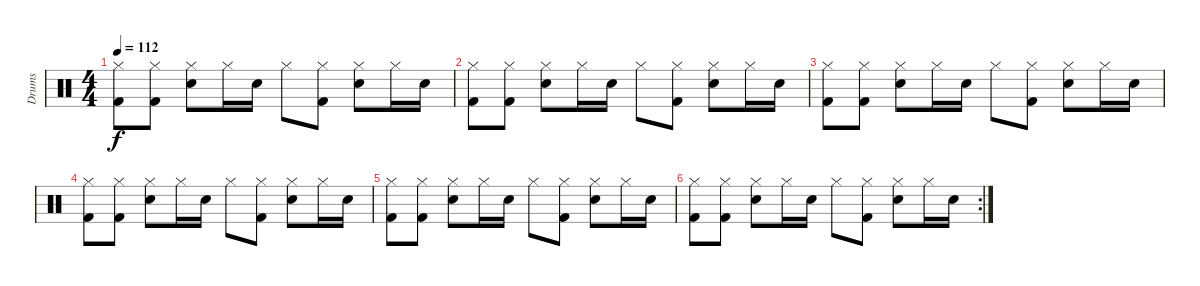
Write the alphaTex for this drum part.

\track ("Drums" "Drums") {instrument percussion}
\staff {score}
\articulation defaults
\ts (4 4)
\tempo 112
\clef neutral
\ks c
("Hi-Hat (closed)" "Kick (hit) 2").8{dy f} ("Hi-Hat (closed)" "Kick (hit) 2").8 ("Hi-Hat (closed)" "Electric Snare (hit)").8 "Hi-Hat (closed)".16 "Electric Snare (hit)".16 "Hi-Hat (closed)".8 ("Hi-Hat (closed)" "Kick (hit) 2").8 ("Hi-Hat (closed)" "Electric Snare (hit)").8 "Hi-Hat (closed)".16 "Electric Snare (hit)".16 |
("Hi-Hat (closed)" "Kick (hit) 2").8 ("Hi-Hat (closed)" "Kick (hit) 2").8 ("Hi-Hat (closed)" "Electric Snare (hit)").8 "Hi-Hat (closed)".16 "Electric Snare (hit)".16 "Hi-Hat (closed)".8 ("Hi-Hat (closed)" "Kick (hit) 2").8 ("Hi-Hat (closed)" "Electric Snare (hit)").8 "Hi-Hat (closed)".16 "Electric Snare (hit)".16 |
("Hi-Hat (closed)" "Kick (hit) 2").8 ("Hi-Hat (closed)" "Kick (hit) 2").8 ("Hi-Hat (closed)" "Electric Snare (hit)").8 "Hi-Hat (closed)".16 "Electric Snare (hit)".16 "Hi-Hat (closed)".8 ("Hi-Hat (closed)" "Kick (hit) 2").8 ("Hi-Hat (closed)" "Electric Snare (hit)").8 "Hi-Hat (closed)".16 "Electric Snare (hit)".16 |
("Hi-Hat (closed)" "Kick (hit) 2").8 ("Hi-Hat (closed)" "Kick (hit) 2").8 ("Hi-Hat (closed)" "Electric Snare (hit)").8 "Hi-Hat (closed)".16 "Electric Snare (hit)".16 "Hi-Hat (closed)".8 ("Hi-Hat (closed)" "Kick (hit) 2").8 ("Hi-Hat (closed)" "Electric Snare (hit)").8 "Hi-Hat (closed)".16 "Electric Snare (hit)".16 |
("Hi-Hat (closed)" "Kick (hit) 2").8 ("Hi-Hat (closed)" "Kick (hit) 2").8 ("Hi-Hat (closed)" "Electric Snare (hit)").8 "Hi-Hat (closed)".16 "Electric Snare (hit)".16 "Hi-Hat (closed)".8 ("Hi-Hat (closed)" "Kick (hit) 2").8 ("Hi-Hat (closed)" "Electric Snare (hit)").8 "Hi-Hat (closed)".16 "Electric Snare (hit)".16 |
\rc 2
("Hi-Hat (closed)" "Kick (hit) 2").8 ("Hi-Hat (closed)" "Kick (hit) 2").8 ("Hi-Hat (closed)" "Electric Snare (hit)").8 "Hi-Hat (closed)".16 "Electric Snare (hit)".16 "Hi-Hat (closed)".8 ("Hi-Hat (closed)" "Kick (hit) 2").8 ("Hi-Hat (closed)" "Electric Snare (hit)").8 "Hi-Hat (closed)".16 "Electric Snare (hit)".16
